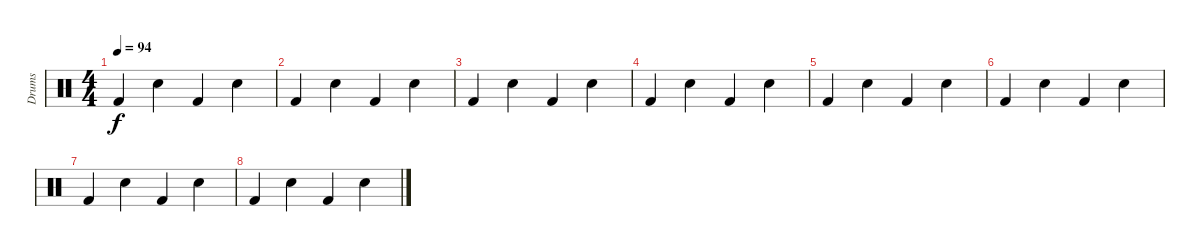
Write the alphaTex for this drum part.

\track ("Drums" "Drums") {instrument percussion}
\staff {score}
\articulation defaults
\ts (4 4)
\tempo 94
\clef neutral
\ks c "Kick (hit) 2".4{dy f} "Snare (hit) 2".4 "Kick (hit) 2".4 "Snare (hit) 2".4
|
"Kick (hit) 2".4 "Snare (hit) 2".4 "Kick (hit) 2".4 "Snare (hit) 2".4 |
"Kick (hit) 2".4 "Snare (hit) 2".4 "Kick (hit) 2".4 "Snare (hit) 2".4 |
"Kick (hit) 2".4 "Snare (hit) 2".4 "Kick (hit) 2".4 "Snare (hit) 2".4 |
"Kick (hit) 2".4 "Snare (hit) 2".4 "Kick (hit) 2".4 "Snare (hit) 2".4 |
"Kick (hit) 2".4 "Snare (hit) 2".4 "Kick (hit) 2".4 "Snare (hit) 2".4 |
"Kick (hit) 2".4 "Snare (hit) 2".4 "Kick (hit) 2".4 "Snare (hit) 2".4 |
"Kick (hit) 2".4 "Snare (hit) 2".4 "Kick (hit) 2".4 "Snare (hit) 2".4
